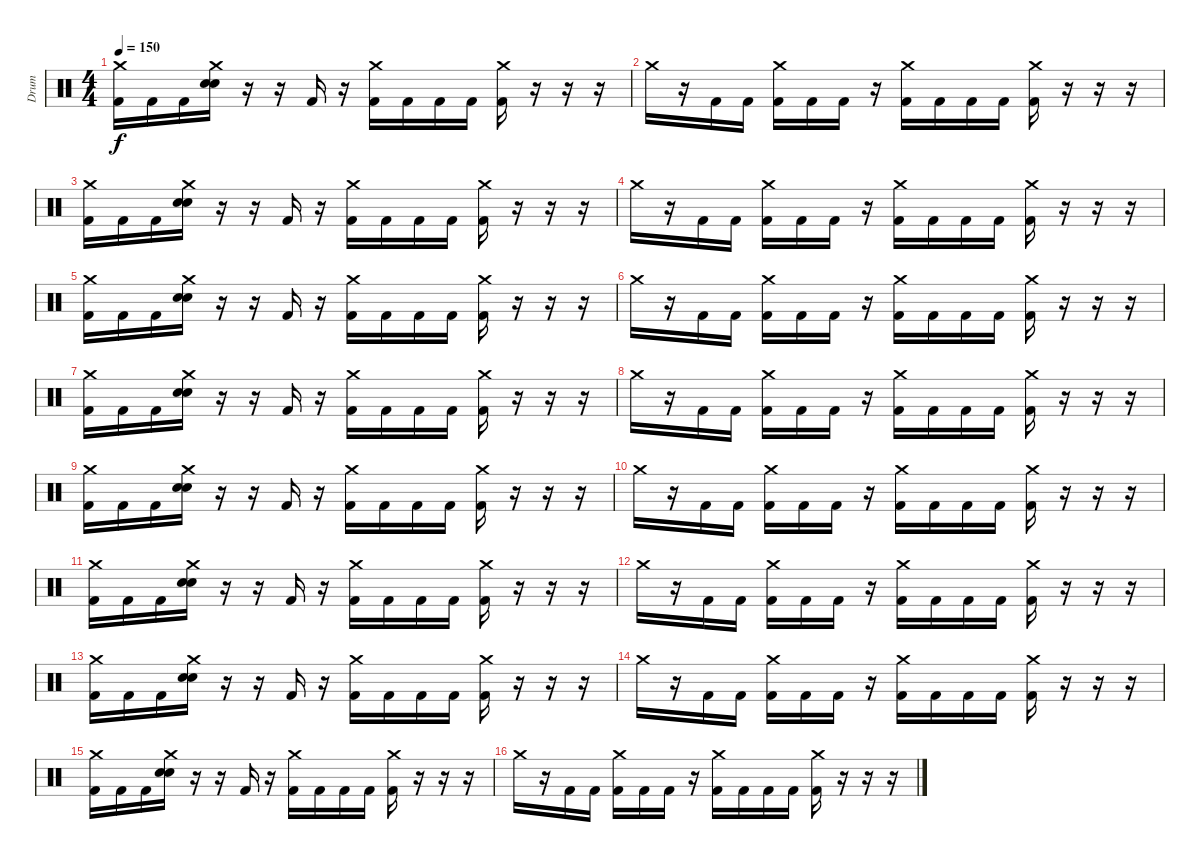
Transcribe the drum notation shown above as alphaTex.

\track ("Drum" "Drum") {instrument percussion}
\staff {score}
\articulation defaults
\ts (4 4)
\tempo 150
\clef neutral
\ks c
("Crash medium (hit)" "Kick (hit) 2").16{dy f} "Kick (hit) 2".16 "Kick (hit) 2".16 ("Crash medium (hit)" "Snare (hit) 2" "Electric Snare (hit)").16 r.16 r.16 "Kick (hit) 2".16 r.16 ("Crash medium (hit)" "Kick (hit) 2").16 "Kick (hit) 2".16 "Kick (hit) 2".16 "Kick (hit) 2".16 ("Crash medium (hit)" "Kick (hit) 2").16 r.16 r.16 r.16 |
"Crash medium (hit)".16 r.16 "Kick (hit) 2".16 "Kick (hit) 2".16 ("Crash medium (hit)" "Kick (hit) 2").16 "Kick (hit) 2".16 "Kick (hit) 2".16 r.16 ("Crash medium (hit)" "Kick (hit) 2").16 "Kick (hit) 2".16 "Kick (hit) 2".16 "Kick (hit) 2".16 ("Crash medium (hit)" "Kick (hit) 2").16 r.16 r.16 r.16 |
("Crash medium (hit)" "Kick (hit) 2").16 "Kick (hit) 2".16 "Kick (hit) 2".16 ("Crash medium (hit)" "Snare (hit) 2" "Electric Snare (hit)").16 r.16 r.16 "Kick (hit) 2".16 r.16 ("Crash medium (hit)" "Kick (hit) 2").16 "Kick (hit) 2".16 "Kick (hit) 2".16 "Kick (hit) 2".16 ("Crash medium (hit)" "Kick (hit) 2").16 r.16 r.16 r.16 |
"Crash medium (hit)".16 r.16 "Kick (hit) 2".16 "Kick (hit) 2".16 ("Crash medium (hit)" "Kick (hit) 2").16 "Kick (hit) 2".16 "Kick (hit) 2".16 r.16 ("Crash medium (hit)" "Kick (hit) 2").16 "Kick (hit) 2".16 "Kick (hit) 2".16 "Kick (hit) 2".16 ("Crash medium (hit)" "Kick (hit) 2").16 r.16 r.16 r.16 |
("Crash medium (hit)" "Kick (hit) 2").16 "Kick (hit) 2".16 "Kick (hit) 2".16 ("Crash medium (hit)" "Snare (hit) 2" "Electric Snare (hit)").16 r.16 r.16 "Kick (hit) 2".16 r.16 ("Crash medium (hit)" "Kick (hit) 2").16 "Kick (hit) 2".16 "Kick (hit) 2".16 "Kick (hit) 2".16 ("Crash medium (hit)" "Kick (hit) 2").16 r.16 r.16 r.16 |
"Crash medium (hit)".16 r.16 "Kick (hit) 2".16 "Kick (hit) 2".16 ("Crash medium (hit)" "Kick (hit) 2").16 "Kick (hit) 2".16 "Kick (hit) 2".16 r.16 ("Crash medium (hit)" "Kick (hit) 2").16 "Kick (hit) 2".16 "Kick (hit) 2".16 "Kick (hit) 2".16 ("Crash medium (hit)" "Kick (hit) 2").16 r.16 r.16 r.16 |
("Crash medium (hit)" "Kick (hit) 2").16 "Kick (hit) 2".16 "Kick (hit) 2".16 ("Crash medium (hit)" "Snare (hit) 2" "Electric Snare (hit)").16 r.16 r.16 "Kick (hit) 2".16 r.16 ("Crash medium (hit)" "Kick (hit) 2").16 "Kick (hit) 2".16 "Kick (hit) 2".16 "Kick (hit) 2".16 ("Crash medium (hit)" "Kick (hit) 2").16 r.16 r.16 r.16 |
"Crash medium (hit)".16 r.16 "Kick (hit) 2".16 "Kick (hit) 2".16 ("Crash medium (hit)" "Kick (hit) 2").16 "Kick (hit) 2".16 "Kick (hit) 2".16 r.16 ("Crash medium (hit)" "Kick (hit) 2").16 "Kick (hit) 2".16 "Kick (hit) 2".16 "Kick (hit) 2".16 ("Crash medium (hit)" "Kick (hit) 2").16 r.16 r.16 r.16 |
("Crash medium (hit)" "Kick (hit) 2").16 "Kick (hit) 2".16 "Kick (hit) 2".16 ("Crash medium (hit)" "Snare (hit) 2" "Electric Snare (hit)").16 r.16 r.16 "Kick (hit) 2".16 r.16 ("Crash medium (hit)" "Kick (hit) 2").16 "Kick (hit) 2".16 "Kick (hit) 2".16 "Kick (hit) 2".16 ("Crash medium (hit)" "Kick (hit) 2").16 r.16 r.16 r.16 |
"Crash medium (hit)".16 r.16 "Kick (hit) 2".16 "Kick (hit) 2".16 ("Crash medium (hit)" "Kick (hit) 2").16 "Kick (hit) 2".16 "Kick (hit) 2".16 r.16 ("Crash medium (hit)" "Kick (hit) 2").16 "Kick (hit) 2".16 "Kick (hit) 2".16 "Kick (hit) 2".16 ("Crash medium (hit)" "Kick (hit) 2").16 r.16 r.16 r.16 |
("Crash medium (hit)" "Kick (hit) 2").16 "Kick (hit) 2".16 "Kick (hit) 2".16 ("Crash medium (hit)" "Snare (hit) 2" "Electric Snare (hit)").16 r.16 r.16 "Kick (hit) 2".16 r.16 ("Crash medium (hit)" "Kick (hit) 2").16 "Kick (hit) 2".16 "Kick (hit) 2".16 "Kick (hit) 2".16 ("Crash medium (hit)" "Kick (hit) 2").16 r.16 r.16 r.16 |
"Crash medium (hit)".16 r.16 "Kick (hit) 2".16 "Kick (hit) 2".16 ("Crash medium (hit)" "Kick (hit) 2").16 "Kick (hit) 2".16 "Kick (hit) 2".16 r.16 ("Crash medium (hit)" "Kick (hit) 2").16 "Kick (hit) 2".16 "Kick (hit) 2".16 "Kick (hit) 2".16 ("Crash medium (hit)" "Kick (hit) 2").16 r.16 r.16 r.16 |
("Crash medium (hit)" "Kick (hit) 2").16 "Kick (hit) 2".16 "Kick (hit) 2".16 ("Crash medium (hit)" "Snare (hit) 2" "Electric Snare (hit)").16 r.16 r.16 "Kick (hit) 2".16 r.16 ("Crash medium (hit)" "Kick (hit) 2").16 "Kick (hit) 2".16 "Kick (hit) 2".16 "Kick (hit) 2".16 ("Crash medium (hit)" "Kick (hit) 2").16 r.16 r.16 r.16 |
"Crash medium (hit)".16 r.16 "Kick (hit) 2".16 "Kick (hit) 2".16 ("Crash medium (hit)" "Kick (hit) 2").16 "Kick (hit) 2".16 "Kick (hit) 2".16 r.16 ("Crash medium (hit)" "Kick (hit) 2").16 "Kick (hit) 2".16 "Kick (hit) 2".16 "Kick (hit) 2".16 ("Crash medium (hit)" "Kick (hit) 2").16 r.16 r.16 r.16 |
("Crash medium (hit)" "Kick (hit) 2").16 "Kick (hit) 2".16 "Kick (hit) 2".16 ("Crash medium (hit)" "Snare (hit) 2" "Electric Snare (hit)").16 r.16 r.16 "Kick (hit) 2".16 r.16 ("Crash medium (hit)" "Kick (hit) 2").16 "Kick (hit) 2".16 "Kick (hit) 2".16 "Kick (hit) 2".16 ("Crash medium (hit)" "Kick (hit) 2").16 r.16 r.16 r.16 |
"Crash medium (hit)".16 r.16 "Kick (hit) 2".16 "Kick (hit) 2".16 ("Crash medium (hit)" "Kick (hit) 2").16 "Kick (hit) 2".16 "Kick (hit) 2".16 r.16 ("Crash medium (hit)" "Kick (hit) 2").16 "Kick (hit) 2".16 "Kick (hit) 2".16 "Kick (hit) 2".16 ("Crash medium (hit)" "Kick (hit) 2").16 r.16 r.16 r.16
